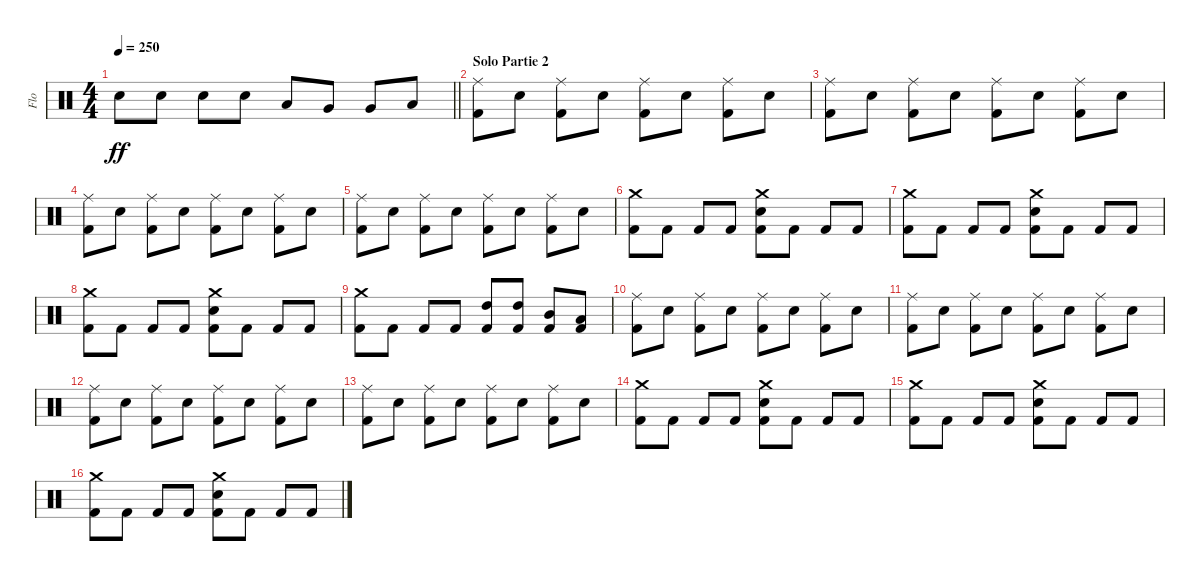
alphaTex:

\track ("Flo" "Flo") {instrument percussion}
\staff {score}
\articulation defaults
\ts (4 4)
\tempo 250
\clef neutral
\barLineRight lightlight
\ks c "Electric Snare (hit)".8{dy ff} "Electric Snare (hit)".8 "Electric Snare (hit)".8 "Electric Snare (hit)".8 "Low Tom (hit)".8 "Very Low Tom (hit)".8 "Very Low Tom (hit)".8 "Low Floor Tom (hit)".8
|
\section ("" "Solo Partie 2")
("Ride (middle)" "Kick (hit) 2").8 "Electric Snare (hit)".8 ("Ride (middle)" "Kick (hit) 2").8 "Electric Snare (hit)".8 ("Ride (middle)" "Kick (hit) 2").8 "Electric Snare (hit)".8 ("Ride (middle)" "Kick (hit) 2").8 "Electric Snare (hit)".8 |
("Ride (middle)" "Kick (hit) 2").8 "Electric Snare (hit)".8 ("Ride (middle)" "Kick (hit) 2").8 "Electric Snare (hit)".8 ("Ride (middle)" "Kick (hit) 2").8 "Electric Snare (hit)".8 ("Ride (middle)" "Kick (hit) 2").8 "Electric Snare (hit)".8 |
("Ride (middle)" "Kick (hit) 2").8 "Electric Snare (hit)".8 ("Ride (middle)" "Kick (hit) 2").8 "Electric Snare (hit)".8 ("Ride (middle)" "Kick (hit) 2").8 "Electric Snare (hit)".8 ("Ride (middle)" "Kick (hit) 2").8 "Electric Snare (hit)".8 |
("Ride (middle)" "Kick (hit) 2").8 "Electric Snare (hit)".8 ("Ride (middle)" "Kick (hit) 2").8 "Electric Snare (hit)".8 ("Ride (middle)" "Kick (hit) 2").8 "Electric Snare (hit)".8 ("Ride (middle)" "Kick (hit) 2").8 "Electric Snare (hit)".8 |
("Crash medium (hit)" "Kick (hit) 2").8 "Kick (hit) 2".8 "Kick (hit) 2".8 "Kick (hit) 2".8 ("Crash medium (hit)" "Electric Snare (hit)" "Kick (hit) 2").8 "Kick (hit) 2".8 "Kick (hit) 2".8 "Kick (hit) 2".8 |
("Crash medium (hit)" "Kick (hit) 2").8 "Kick (hit) 2".8 "Kick (hit) 2".8 "Kick (hit) 2".8 ("Crash medium (hit)" "Electric Snare (hit)" "Kick (hit) 2").8 "Kick (hit) 2".8 "Kick (hit) 2".8 "Kick (hit) 2".8 |
("Crash medium (hit)" "Kick (hit) 2").8 "Kick (hit) 2".8 "Kick (hit) 2".8 "Kick (hit) 2".8 ("Crash medium (hit)" "Electric Snare (hit)" "Kick (hit) 2").8 "Kick (hit) 2".8 "Kick (hit) 2".8 "Kick (hit) 2".8 |
("Crash medium (hit)" "Kick (hit) 2").8 "Kick (hit) 2".8 "Kick (hit) 2".8 "Kick (hit) 2".8 ("High Tom (hit)" "Kick (hit) 2").8 ("High Tom (hit)" "Kick (hit) 2").8 ("Mid Tom (hit)" "Kick (hit) 2").8 ("Low Tom (hit)" "Kick (hit) 2").8 |
("Ride (middle)" "Kick (hit) 2").8 "Electric Snare (hit)".8 ("Ride (middle)" "Kick (hit) 2").8 "Electric Snare (hit)".8 ("Ride (middle)" "Kick (hit) 2").8 "Electric Snare (hit)".8 ("Ride (middle)" "Kick (hit) 2").8 "Electric Snare (hit)".8 |
("Ride (middle)" "Kick (hit) 2").8 "Electric Snare (hit)".8 ("Ride (middle)" "Kick (hit) 2").8 "Electric Snare (hit)".8 ("Ride (middle)" "Kick (hit) 2").8 "Electric Snare (hit)".8 ("Ride (middle)" "Kick (hit) 2").8 "Electric Snare (hit)".8 |
("Ride (middle)" "Kick (hit) 2").8 "Electric Snare (hit)".8 ("Ride (middle)" "Kick (hit) 2").8 "Electric Snare (hit)".8 ("Ride (middle)" "Kick (hit) 2").8 "Electric Snare (hit)".8 ("Ride (middle)" "Kick (hit) 2").8 "Electric Snare (hit)".8 |
("Ride (middle)" "Kick (hit) 2").8 "Electric Snare (hit)".8 ("Ride (middle)" "Kick (hit) 2").8 "Electric Snare (hit)".8 ("Ride (middle)" "Kick (hit) 2").8 "Electric Snare (hit)".8 ("Ride (middle)" "Kick (hit) 2").8 "Electric Snare (hit)".8 |
("Crash medium (hit)" "Kick (hit) 2").8 "Kick (hit) 2".8 "Kick (hit) 2".8 "Kick (hit) 2".8 ("Crash medium (hit)" "Electric Snare (hit)" "Kick (hit) 2").8 "Kick (hit) 2".8 "Kick (hit) 2".8 "Kick (hit) 2".8 |
("Crash medium (hit)" "Kick (hit) 2").8 "Kick (hit) 2".8 "Kick (hit) 2".8 "Kick (hit) 2".8 ("Crash medium (hit)" "Electric Snare (hit)" "Kick (hit) 2").8 "Kick (hit) 2".8 "Kick (hit) 2".8 "Kick (hit) 2".8 |
("Crash medium (hit)" "Kick (hit) 2").8 "Kick (hit) 2".8 "Kick (hit) 2".8 "Kick (hit) 2".8 ("Crash medium (hit)" "Electric Snare (hit)" "Kick (hit) 2").8 "Kick (hit) 2".8 "Kick (hit) 2".8 "Kick (hit) 2".8
